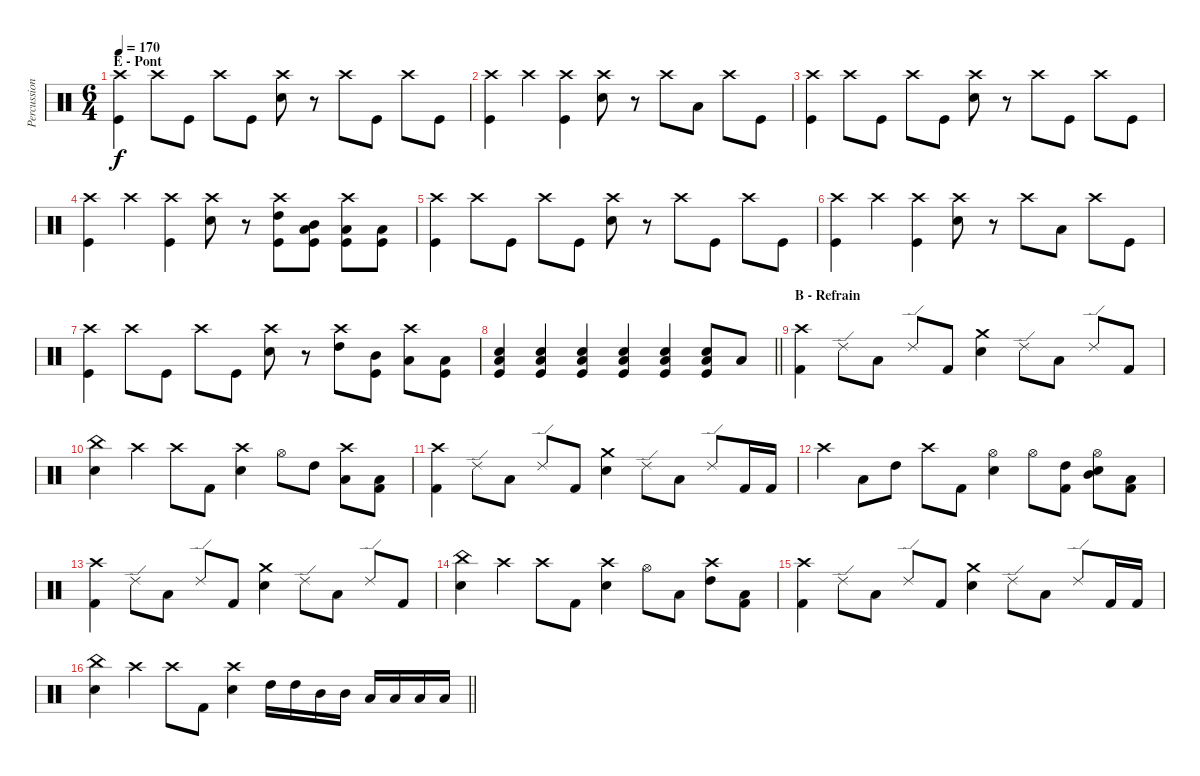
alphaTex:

\track ("Percussions" "Percussion") {instrument percussion}
\staff {score}
\articulation defaults
\ts (6 4)
\section ("" "E - Pont")
\tempo 170
\clef neutral
\ks c
("Crash high (hit)" "Kick (hit)").4{dy f} "Crash high (hit)".8 "Kick (hit)".8 "Crash high (hit)".8 "Kick (hit)".8 ("Crash high (hit)" "Snare (hit) 2").8 r.8 "Crash high (hit)".8 "Kick (hit)".8 "Crash high (hit)".8 "Kick (hit)".8 |
("Crash high (hit)" "Kick (hit)").4 "Crash high (hit)".4 ("Crash high (hit)" "Kick (hit)").4 ("Crash high (hit)" "Snare (hit) 2").8 r.8 "Crash high (hit)".8 "Low Tom (hit)".8 "Crash high (hit)".8 "Kick (hit)".8 |
("Crash high (hit)" "Kick (hit)").4 "Crash high (hit)".8 "Kick (hit)".8 "Crash high (hit)".8 "Kick (hit)".8 ("Crash high (hit)" "Snare (hit) 2").8 r.8 "Crash high (hit)".8 "Kick (hit)".8 "Crash high (hit)".8 "Kick (hit)".8 |
("Crash high (hit)" "Kick (hit)").4 "Crash high (hit)".4 ("Crash high (hit)" "Kick (hit)").4 ("Crash high (hit)" "Snare (hit) 2").8 r.8 ("Crash high (hit)" "High Tom (hit)" "Kick (hit)").8 ("Mid Tom (hit)" "Low Tom (hit)" "Kick (hit)").8 ("Crash high (hit)" "Low Tom (hit)" "Kick (hit)").8 ("Low Floor Tom (hit)" "Kick (hit)").8 |
("Crash high (hit)" "Kick (hit)").4 "Crash high (hit)".8 "Kick (hit)".8 "Crash high (hit)".8 "Kick (hit)".8 ("Crash high (hit)" "Snare (hit) 2").8 r.8 "Crash high (hit)".8 "Kick (hit)".8 "Crash high (hit)".8 "Kick (hit)".8 |
("Crash high (hit)" "Kick (hit)").4 "Crash high (hit)".4 ("Crash high (hit)" "Kick (hit)").4 ("Crash high (hit)" "Snare (hit) 2").8 r.8 "Crash high (hit)".8 "Low Tom (hit)".8 "Crash high (hit)".8 "Kick (hit)".8 |
("Crash high (hit)" "Kick (hit)").4 "Crash high (hit)".8 "Kick (hit)".8 "Crash high (hit)".8 "Kick (hit)".8 ("Crash high (hit)" "Snare (hit) 2").8 r.8 ("Crash high (hit)" "High Tom (hit)").8 ("Mid Tom (hit)" "Kick (hit)").8 ("Crash high (hit)" "Low Tom (hit)").8 ("Low Floor Tom (hit)" "Kick (hit)").8 |
\barLineRight lightlight
("Snare (hit) 2" "Low Floor Tom (hit)" "Kick (hit)").4 ("Snare (hit) 2" "Low Floor Tom (hit)" "Kick (hit)").4 ("Snare (hit) 2" "Low Floor Tom (hit)" "Kick (hit)").4 ("Snare (hit) 2" "Low Floor Tom (hit)" "Kick (hit)").4 ("Snare (hit) 2" "Low Floor Tom (hit)" "Kick (hit)").4 ("Snare (hit) 2" "Low Tom (hit)" "Kick (hit)").8 "Low Floor Tom (hit)".8 |
\section ("" "B - Refrain")
("Crash high (hit)" "Kick (hit) 2").4 "Ride (edge) 2".8 "Low Tom (hit)".8 "Ride (edge) 2".8 "Kick (hit) 2".8 ("Crash medium (hit)" "Snare (hit) 2").4 "Ride (edge) 2".8 "Low Floor Tom (hit)".8 "Ride (edge) 2".8 "Kick (hit) 2".8 |
("China (hit)" "Snare (hit) 2").4 "Crash high (hit)".4 "Crash high (hit)".8 "Kick (hit) 2".8 ("Crash high (hit)" "Snare (hit) 2").4 "Hi-Hat (open)".8 "High Tom (hit)".8 ("Crash high (hit)" "Low Tom (hit)").8 ("Low Floor Tom (hit)" "Kick (hit) 2").8 |
("Crash high (hit)" "Kick (hit) 2").4 "Ride (edge) 2".8 "Low Tom (hit)".8 "Ride (edge) 2".8 "Kick (hit) 2".8 ("Crash medium (hit)" "Snare (hit) 2").4 "Ride (edge) 2".8 "Low Floor Tom (hit)".8 "Ride (edge) 2".8 "Kick (hit) 2".16 "Kick (hit) 2".16 |
"Crash high (hit)".4 "Low Tom (hit)".8 "High Tom (hit)".8 "Crash high (hit)".8 "Kick (hit) 2".8 ("Hi-Hat (open)" "Snare (hit) 2").4 "Hi-Hat (open)".8 ("High Tom (hit)" "Kick (hit) 2").8 ("Hi-Hat (open)" "Mid Tom (hit)" "Snare (hit) 2").8 ("Low Tom (hit)" "Kick (hit) 2").8 |
("Crash high (hit)" "Kick (hit) 2").4 "Ride (edge) 2".8 "Low Tom (hit)".8 "Ride (edge) 2".8 "Kick (hit) 2".8 ("Crash medium (hit)" "Snare (hit) 2").4 "Ride (edge) 2".8 "Low Floor Tom (hit)".8 "Ride (edge) 2".8 "Kick (hit) 2".8 |
("China (hit)" "Snare (hit) 2").4 "Crash high (hit)".4 "Crash high (hit)".8 "Kick (hit) 2".8 ("Crash high (hit)" "Snare (hit) 2").4 "Hi-Hat (open)".8 "Low Tom (hit)".8 ("Crash high (hit)" "High Tom (hit)").8 ("Low Floor Tom (hit)" "Kick (hit) 2").8 |
("Crash high (hit)" "Kick (hit) 2").4 "Ride (edge) 2".8 "Low Tom (hit)".8 "Ride (edge) 2".8 "Kick (hit) 2".8 ("Crash medium (hit)" "Snare (hit) 2").4 "Ride (edge) 2".8 "Low Floor Tom (hit)".8 "Ride (edge) 2".8 "Kick (hit) 2".16 "Kick (hit) 2".16 |
\barLineRight lightlight
("China (hit)" "Snare (hit) 2").4 "Crash high (hit)".4 "Crash high (hit)".8 "Kick (hit) 2".8 ("Crash high (hit)" "Snare (hit) 2").4 "High Tom (hit)".16 "High Tom (hit)".16 "Mid Tom (hit)".16 "Mid Tom (hit)".16 "Low Tom (hit)".16 "Low Tom (hit)".16 "Low Floor Tom (hit)".16 "Low Floor Tom (hit)".16
